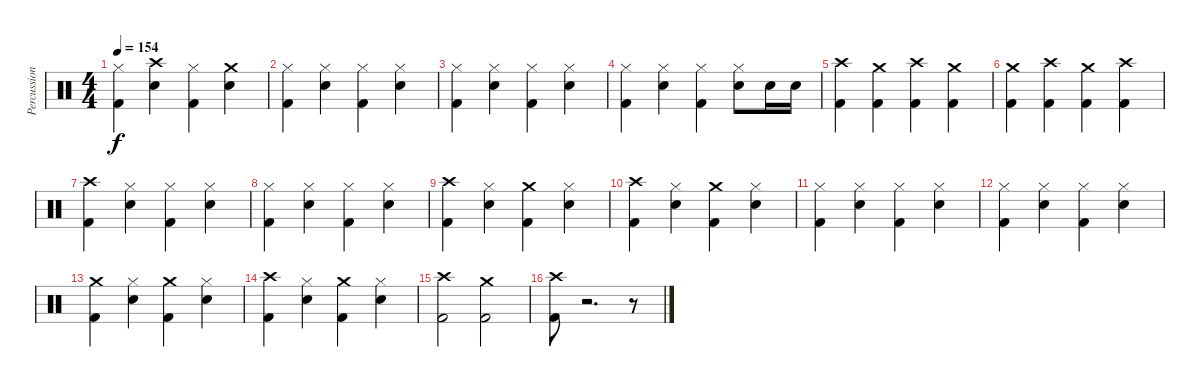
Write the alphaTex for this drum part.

\track ("Percussion" "Percussion") {instrument percussion}
\staff {score}
\articulation defaults
\ts (4 4)
\tempo 154
\clef neutral
\ks c
("Hi-Hat (closed)" "Kick (hit) 2").4{dy f} ("Crash high (hit)" "Snare (hit) 2").4 ("Hi-Hat (closed)" "Kick (hit) 2").4 ("Crash medium (hit)" "Snare (hit) 2").4 |
("Hi-Hat (closed)" "Kick (hit) 2").4 ("Hi-Hat (closed)" "Snare (hit) 2").4 ("Hi-Hat (closed)" "Kick (hit) 2").4 ("Hi-Hat (closed)" "Snare (hit) 2").4 |
("Hi-Hat (closed)" "Kick (hit) 2").4 ("Hi-Hat (closed)" "Snare (hit) 2").4 ("Hi-Hat (closed)" "Kick (hit) 2").4 ("Hi-Hat (closed)" "Snare (hit) 2").4 |
("Hi-Hat (closed)" "Kick (hit) 2").4 ("Hi-Hat (closed)" "Snare (hit) 2").4 ("Hi-Hat (closed)" "Kick (hit) 2").4 ("Hi-Hat (closed)" "Snare (hit) 2").8 "Snare (hit) 2".16 "Snare (hit) 2".16 |
("Crash high (hit)" "Kick (hit) 2").4 ("Crash medium (hit)" "Kick (hit) 2").4 ("Crash high (hit)" "Kick (hit) 2").4 ("Crash medium (hit)" "Kick (hit) 2").4 |
("Crash medium (hit)" "Kick (hit) 2").4 ("Crash high (hit)" "Kick (hit) 2").4 ("Crash medium (hit)" "Kick (hit) 2").4 ("Crash high (hit)" "Kick (hit) 2").4 |
("Crash high (hit)" "Kick (hit) 2").4 ("Hi-Hat (closed)" "Snare (hit) 2").4 ("Hi-Hat (closed)" "Kick (hit) 2").4 ("Hi-Hat (closed)" "Snare (hit) 2").4 |
("Hi-Hat (closed)" "Kick (hit) 2").4 ("Hi-Hat (closed)" "Snare (hit) 2").4 ("Hi-Hat (closed)" "Kick (hit) 2").4 ("Hi-Hat (closed)" "Snare (hit) 2").4 |
("Crash high (hit)" "Kick (hit) 2").4 ("Hi-Hat (closed)" "Snare (hit) 2").4 ("Crash medium (hit)" "Kick (hit) 2").4 ("Hi-Hat (closed)" "Snare (hit) 2").4 |
("Crash high (hit)" "Kick (hit) 2").4 ("Hi-Hat (closed)" "Snare (hit) 2").4 ("Crash medium (hit)" "Kick (hit) 2").4 ("Hi-Hat (closed)" "Snare (hit) 2").4 |
("Hi-Hat (closed)" "Kick (hit) 2").4 ("Hi-Hat (closed)" "Snare (hit) 2").4 ("Hi-Hat (closed)" "Kick (hit) 2").4 ("Hi-Hat (closed)" "Snare (hit) 2").4 |
("Hi-Hat (closed)" "Kick (hit) 2").4 ("Hi-Hat (closed)" "Snare (hit) 2").4 ("Hi-Hat (closed)" "Kick (hit) 2").4 ("Hi-Hat (closed)" "Snare (hit) 2").4 |
("Crash medium (hit)" "Kick (hit) 2").4 ("Hi-Hat (closed)" "Snare (hit) 2").4 ("Crash medium (hit)" "Kick (hit) 2").4 ("Hi-Hat (closed)" "Snare (hit) 2").4 |
("Crash high (hit)" "Kick (hit) 2").4 ("Hi-Hat (closed)" "Snare (hit) 2").4 ("Crash medium (hit)" "Kick (hit) 2").4 ("Hi-Hat (closed)" "Snare (hit) 2").4 |
("Crash high (hit)" "Kick (hit) 2").2 ("Crash medium (hit)" "Kick (hit) 2").2 |
("Crash high (hit)" "Kick (hit) 2").8 r.2{d} r.8
